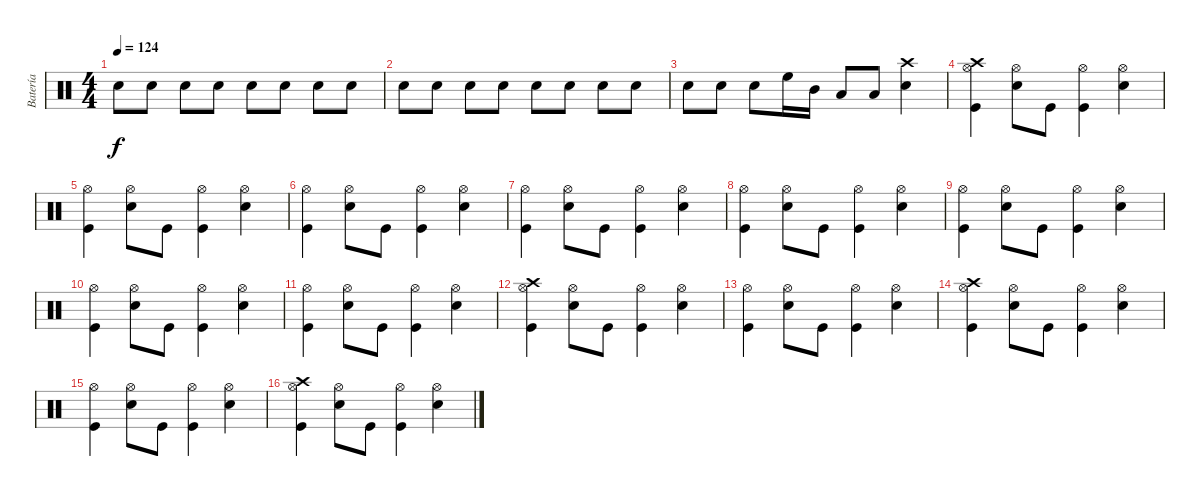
\track ("Batería" "Batería") {instrument percussion}
\staff {score}
\articulation defaults
\ts (4 4)
\tempo 124
\clef neutral
\ks c "Snare (hit) 2".8{dy f volume 16} "Snare (hit) 2".8 "Snare (hit) 2".8 "Snare (hit) 2".8 "Snare (hit) 2".8 "Snare (hit) 2".8 "Snare (hit) 2".8 "Snare (hit) 2".8
|
"Snare (hit) 2".8 "Snare (hit) 2".8 "Snare (hit) 2".8 "Snare (hit) 2".8 "Snare (hit) 2".8 "Snare (hit) 2".8 "Snare (hit) 2".8 "Snare (hit) 2".8 |
"Snare (hit) 2".8 "Snare (hit) 2".8 "Snare (hit) 2".8 "High Floor Tom (hit)".16 "Mid Tom (hit)".16 "Low Tom (hit)".8 "Low Tom (hit)".8 ("Crash high (hit)" "Snare (hit) 2").4 |
("Crash high (hit)" "Hi-Hat (open)" "Kick (hit)").4 ("Hi-Hat (open)" "Snare (hit) 2").8 "Kick (hit)".8 ("Hi-Hat (open)" "Kick (hit)").4 ("Hi-Hat (open)" "Snare (hit) 2").4 |
("Hi-Hat (open)" "Kick (hit)").4 ("Hi-Hat (open)" "Snare (hit) 2").8 "Kick (hit)".8 ("Hi-Hat (open)" "Kick (hit)").4 ("Hi-Hat (open)" "Snare (hit) 2").4 |
("Hi-Hat (open)" "Kick (hit)").4 ("Hi-Hat (open)" "Snare (hit) 2").8 "Kick (hit)".8 ("Hi-Hat (open)" "Kick (hit)").4 ("Hi-Hat (open)" "Snare (hit) 2").4 |
("Hi-Hat (open)" "Kick (hit)").4 ("Hi-Hat (open)" "Snare (hit) 2").8 "Kick (hit)".8 ("Hi-Hat (open)" "Kick (hit)").4 ("Hi-Hat (open)" "Snare (hit) 2").4 |
("Hi-Hat (open)" "Kick (hit)").4 ("Hi-Hat (open)" "Snare (hit) 2").8 "Kick (hit)".8 ("Hi-Hat (open)" "Kick (hit)").4 ("Hi-Hat (open)" "Snare (hit) 2").4 |
("Hi-Hat (open)" "Kick (hit)").4 ("Hi-Hat (open)" "Snare (hit) 2").8 "Kick (hit)".8 ("Hi-Hat (open)" "Kick (hit)").4 ("Hi-Hat (open)" "Snare (hit) 2").4 |
("Hi-Hat (open)" "Kick (hit)").4 ("Hi-Hat (open)" "Snare (hit) 2").8 "Kick (hit)".8 ("Hi-Hat (open)" "Kick (hit)").4 ("Hi-Hat (open)" "Snare (hit) 2").4 |
("Hi-Hat (open)" "Kick (hit)").4 ("Hi-Hat (open)" "Snare (hit) 2").8 "Kick (hit)".8 ("Hi-Hat (open)" "Kick (hit)").4 ("Hi-Hat (open)" "Snare (hit) 2").4 |
("Crash high (hit)" "Hi-Hat (open)" "Kick (hit)").4 ("Hi-Hat (open)" "Snare (hit) 2").8 "Kick (hit)".8 ("Hi-Hat (open)" "Kick (hit)").4 ("Hi-Hat (open)" "Snare (hit) 2").4 |
("Hi-Hat (open)" "Kick (hit)").4 ("Hi-Hat (open)" "Snare (hit) 2").8 "Kick (hit)".8 ("Hi-Hat (open)" "Kick (hit)").4 ("Hi-Hat (open)" "Snare (hit) 2").4 |
("Crash high (hit)" "Hi-Hat (open)" "Kick (hit)").4 ("Hi-Hat (open)" "Snare (hit) 2").8 "Kick (hit)".8 ("Hi-Hat (open)" "Kick (hit)").4 ("Hi-Hat (open)" "Snare (hit) 2").4 |
("Hi-Hat (open)" "Kick (hit)").4 ("Hi-Hat (open)" "Snare (hit) 2").8 "Kick (hit)".8 ("Hi-Hat (open)" "Kick (hit)").4 ("Hi-Hat (open)" "Snare (hit) 2").4 |
("Crash high (hit)" "Hi-Hat (open)" "Kick (hit)").4 ("Hi-Hat (open)" "Snare (hit) 2").8 "Kick (hit)".8 ("Hi-Hat (open)" "Kick (hit)").4 ("Hi-Hat (open)" "Snare (hit) 2").4
